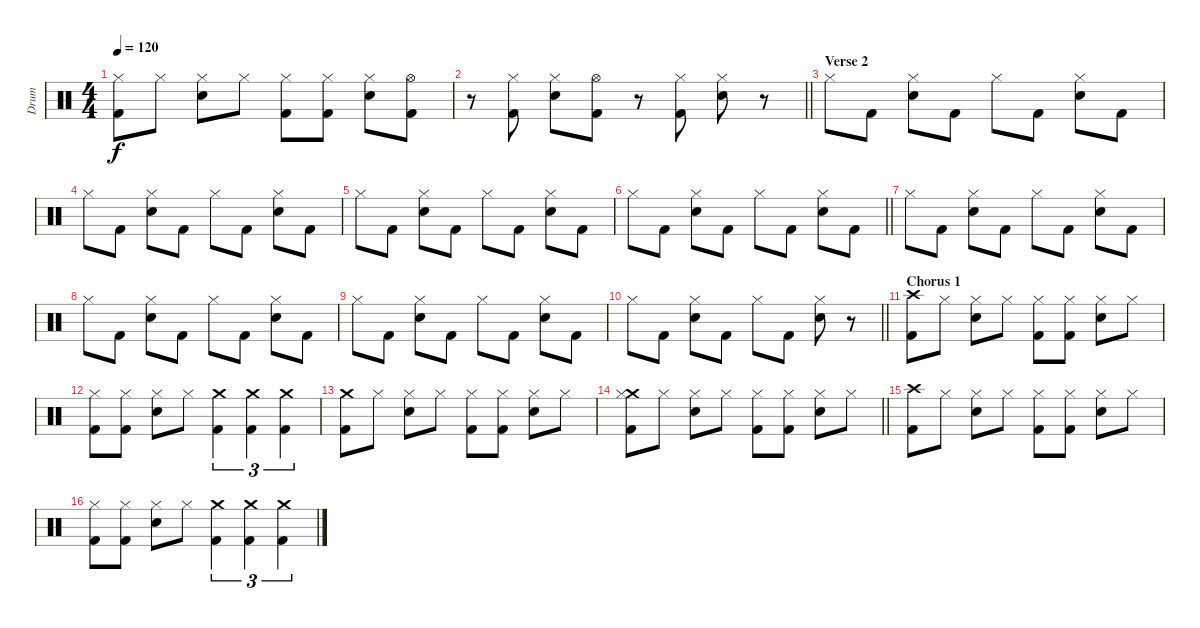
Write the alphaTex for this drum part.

\track ("Drum" "Drum") {instrument percussion}
\staff {score}
\articulation defaults
\ts (4 4)
\tempo 120
\clef neutral
\ks c
("Hi-Hat (closed)" "Kick (hit) 2").8{dy f} "Hi-Hat (closed)".8 ("Hi-Hat (closed)" "Electric Snare (hit)").8 "Hi-Hat (closed)".8 ("Hi-Hat (closed)" "Kick (hit) 2").8 ("Hi-Hat (closed)" "Kick (hit) 2").8 ("Hi-Hat (closed)" "Electric Snare (hit)").8 ("Hi-Hat (open)" "Kick (hit) 2").8 |
\barLineRight lightlight
r.8 ("Hi-Hat (closed)" "Kick (hit) 2").8 ("Hi-Hat (closed)" "Electric Snare (hit)").8 ("Hi-Hat (open)" "Kick (hit) 2").8 r.8 ("Hi-Hat (closed)" "Kick (hit) 2").8 ("Hi-Hat (closed)" "Electric Snare (hit)").8 r.8 |
\section ("" "Verse 2")
"Hi-Hat (closed)".8 "Kick (hit) 2".8 ("Hi-Hat (closed)" "Electric Snare (hit)").8 "Kick (hit) 2".8 "Hi-Hat (closed)".8 "Kick (hit) 2".8 ("Hi-Hat (closed)" "Electric Snare (hit)").8 "Kick (hit) 2".8 |
"Hi-Hat (closed)".8 "Kick (hit) 2".8 ("Hi-Hat (closed)" "Electric Snare (hit)").8 "Kick (hit) 2".8 "Hi-Hat (closed)".8 "Kick (hit) 2".8 ("Hi-Hat (closed)" "Electric Snare (hit)").8 "Kick (hit) 2".8 |
"Hi-Hat (closed)".8 "Kick (hit) 2".8 ("Hi-Hat (closed)" "Electric Snare (hit)").8 "Kick (hit) 2".8 "Hi-Hat (closed)".8 "Kick (hit) 2".8 ("Hi-Hat (closed)" "Electric Snare (hit)").8 "Kick (hit) 2".8 |
\barLineRight lightlight "Hi-Hat (closed)".8 "Kick (hit) 2".8
("Hi-Hat (closed)" "Electric Snare (hit)").8 "Kick (hit) 2".8 "Hi-Hat (closed)".8 "Kick (hit) 2".8 ("Hi-Hat (closed)" "Electric Snare (hit)").8 "Kick (hit) 2".8 |
"Hi-Hat (closed)".8 "Kick (hit) 2".8 ("Hi-Hat (closed)" "Electric Snare (hit)").8 "Kick (hit) 2".8 "Hi-Hat (closed)".8 "Kick (hit) 2".8 ("Hi-Hat (closed)" "Electric Snare (hit)").8 "Kick (hit) 2".8 |
"Hi-Hat (closed)".8 "Kick (hit) 2".8 ("Hi-Hat (closed)" "Electric Snare (hit)").8 "Kick (hit) 2".8 "Hi-Hat (closed)".8 "Kick (hit) 2".8 ("Hi-Hat (closed)" "Electric Snare (hit)").8 "Kick (hit) 2".8 |
"Hi-Hat (closed)".8 "Kick (hit) 2".8 ("Hi-Hat (closed)" "Electric Snare (hit)").8 "Kick (hit) 2".8 "Hi-Hat (closed)".8 "Kick (hit) 2".8 ("Hi-Hat (closed)" "Electric Snare (hit)").8 "Kick (hit) 2".8 |
\barLineRight lightlight "Hi-Hat (closed)".8 "Kick (hit) 2".8
("Hi-Hat (closed)" "Electric Snare (hit)").8 "Kick (hit) 2".8 "Hi-Hat (closed)".8 "Kick (hit) 2".8 ("Hi-Hat (closed)" "Electric Snare (hit)").8 r.8 |
\section ("" "Chorus 1")
("Crash high (hit)" "Kick (hit) 2").8 "Hi-Hat (closed)".8 ("Hi-Hat (closed)" "Electric Snare (hit)").8 "Hi-Hat (closed)".8 ("Hi-Hat (closed)" "Kick (hit) 2").8 ("Hi-Hat (closed)" "Kick (hit) 2").8 ("Hi-Hat (closed)" "Electric Snare (hit)").8 "Hi-Hat (closed)".8 |
("Hi-Hat (closed)" "Kick (hit) 2").8 ("Hi-Hat (closed)" "Kick (hit) 2").8 ("Hi-Hat (closed)" "Electric Snare (hit)").8 "Hi-Hat (closed)".8 ("Crash medium (hit)" "Kick (hit) 2").4{tu (3 2)} ("Crash medium (hit)" "Kick (hit) 2").4{tu (3 2)} ("Crash medium (hit)" "Kick (hit) 2").4{tu (3 2)} |
("Crash medium (hit)" "Kick (hit) 2").8 "Hi-Hat (closed)".8 ("Hi-Hat (closed)" "Electric Snare (hit)").8 "Hi-Hat (closed)".8 ("Hi-Hat (closed)" "Kick (hit) 2").8 ("Hi-Hat (closed)" "Kick (hit) 2").8 ("Hi-Hat (closed)" "Electric Snare (hit)").8 "Hi-Hat (closed)".8 |
\barLineRight lightlight
("Crash medium (hit)" "Hi-Hat (closed)" "Kick (hit) 2").8 "Hi-Hat (closed)".8 ("Hi-Hat (closed)" "Electric Snare (hit)").8 "Hi-Hat (closed)".8 ("Hi-Hat (closed)" "Kick (hit) 2").8 ("Hi-Hat (closed)" "Kick (hit) 2").8 ("Hi-Hat (closed)" "Electric Snare (hit)").8 "Hi-Hat (closed)".8 |
("Crash high (hit)" "Kick (hit) 2").8 "Hi-Hat (closed)".8 ("Hi-Hat (closed)" "Electric Snare (hit)").8 "Hi-Hat (closed)".8 ("Hi-Hat (closed)" "Kick (hit) 2").8 ("Hi-Hat (closed)" "Kick (hit) 2").8 ("Hi-Hat (closed)" "Electric Snare (hit)").8 "Hi-Hat (closed)".8 |
("Hi-Hat (closed)" "Kick (hit) 2").8 ("Hi-Hat (closed)" "Kick (hit) 2").8 ("Hi-Hat (closed)" "Electric Snare (hit)").8 "Hi-Hat (closed)".8 ("Crash medium (hit)" "Kick (hit) 2").4{tu (3 2)} ("Crash medium (hit)" "Kick (hit) 2").4{tu (3 2)} ("Crash medium (hit)" "Kick (hit) 2").4{tu (3 2)}
